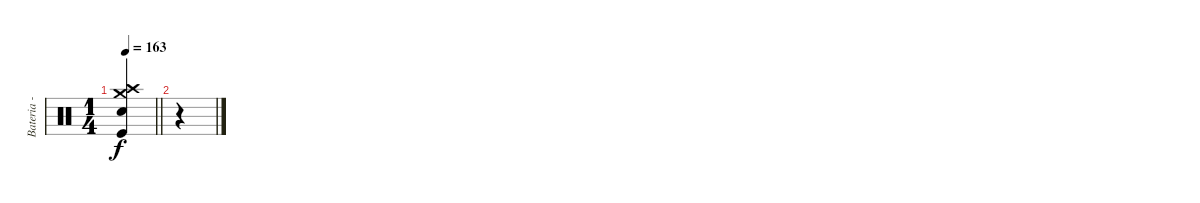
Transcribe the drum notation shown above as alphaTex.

\track ("Bateria - Larzon " "Bateria - ") {instrument percussion}
\staff {score}
\articulation defaults
\ts (1 4)
\tempo 163
\clef neutral
\barLineRight lightlight
\ks c
("Electric Snare (hit)" "Crash high (hit)" "Crash medium (hit)" "Kick (hit)").4{dy f} |
r.4
